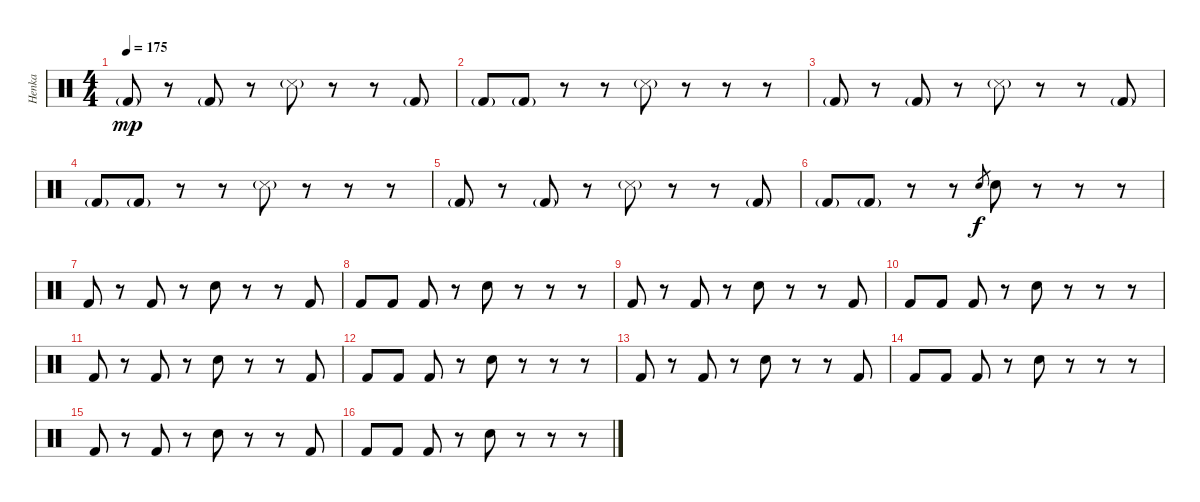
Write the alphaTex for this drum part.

\track ("Henka" "Henka") {instrument percussion}
\staff {score}
\articulation defaults
\ts (4 4)
\tempo 175
\clef neutral
\ks c "Kick (hit) 2"{g}.8{dy mp}
r.8 "Kick (hit) 2"{g}.8 r.8 "Metronome (hit)"{g}.8 r.8 r.8 "Kick (hit) 2"{g}.8 |
"Kick (hit) 2"{g}.8 "Kick (hit) 2"{g}.8 r.8 r.8 "Metronome (hit)"{g}.8 r.8 r.8 r.8 |
"Kick (hit) 2"{g}.8 r.8 "Kick (hit) 2"{g}.8 r.8 "Metronome (hit)"{g}.8 r.8 r.8 "Kick (hit) 2"{g}.8 |
"Kick (hit) 2"{g}.8 "Kick (hit) 2"{g}.8 r.8 r.8 "Metronome (hit)"{g}.8 r.8 r.8 r.8 |
"Kick (hit) 2"{g}.8 r.8 "Kick (hit) 2"{g}.8 r.8 "Metronome (hit)"{g}.8 r.8 r.8 "Kick (hit) 2"{g}.8 |
"Kick (hit) 2"{g}.8 "Kick (hit) 2"{g}.8 r.8 r.8 "Electric Snare (hit)".8{gr dy f} "Electric Snare (hit)".8 r.8 r.8 r.8 |
"Kick (hit) 2".8 r.8 "Kick (hit) 2".8 r.8 "Snare (hit) 2".8 r.8 r.8 "Kick (hit) 2".8 |
"Kick (hit) 2".8 "Kick (hit) 2".8 "Kick (hit) 2".8 r.8 "Snare (hit) 2".8 r.8 r.8 r.8 |
"Kick (hit) 2".8 r.8 "Kick (hit) 2".8 r.8 "Snare (hit) 2".8 r.8 r.8 "Kick (hit) 2".8 |
"Kick (hit) 2".8 "Kick (hit) 2".8 "Kick (hit) 2".8 r.8 "Snare (hit) 2".8 r.8 r.8 r.8 |
"Kick (hit) 2".8 r.8 "Kick (hit) 2".8 r.8 "Snare (hit) 2".8 r.8 r.8 "Kick (hit) 2".8 |
"Kick (hit) 2".8 "Kick (hit) 2".8 "Kick (hit) 2".8 r.8 "Snare (hit) 2".8 r.8 r.8 r.8 |
"Kick (hit) 2".8 r.8 "Kick (hit) 2".8 r.8 "Snare (hit) 2".8 r.8 r.8 "Kick (hit) 2".8 |
"Kick (hit) 2".8 "Kick (hit) 2".8 "Kick (hit) 2".8 r.8 "Snare (hit) 2".8 r.8 r.8 r.8 |
"Kick (hit) 2".8 r.8 "Kick (hit) 2".8 r.8 "Snare (hit) 2".8 r.8 r.8 "Kick (hit) 2".8 |
"Kick (hit) 2".8 "Kick (hit) 2".8 "Kick (hit) 2".8 r.8 "Snare (hit) 2".8 r.8 r.8 r.8
